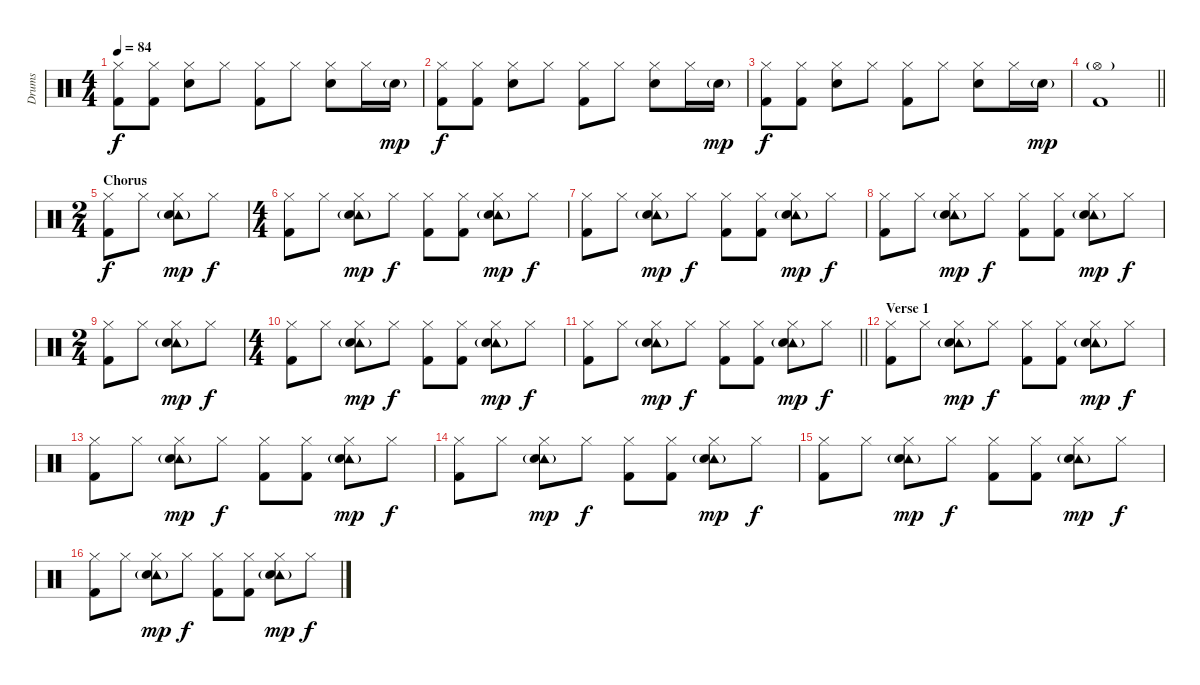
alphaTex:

\track ("Drums" "Drums") {instrument percussion}
\staff {score}
\articulation defaults
\ts (4 4)
\tempo 84
\clef neutral
\ks c
("Hi-Hat (closed)" "Kick (hit) 2").8{dy f} ("Hi-Hat (closed)" "Kick (hit) 2").8 ("Hi-Hat (closed)" "Snare (hit) 2").8 "Hi-Hat (closed)".8 ("Hi-Hat (closed)" "Kick (hit) 2").8 "Hi-Hat (closed)".8 ("Hi-Hat (closed)" "Snare (hit) 2").8 "Hi-Hat (closed)".16 "Snare (hit) 2"{g}.16{dy mp} |
("Hi-Hat (closed)" "Kick (hit) 2").8{dy f} ("Hi-Hat (closed)" "Kick (hit) 2").8 ("Hi-Hat (closed)" "Snare (hit) 2").8 "Hi-Hat (closed)".8 ("Hi-Hat (closed)" "Kick (hit) 2").8 "Hi-Hat (closed)".8 ("Hi-Hat (closed)" "Snare (hit) 2").8 "Hi-Hat (closed)".16 "Snare (hit) 2"{g}.16{dy mp} |
("Hi-Hat (closed)" "Kick (hit) 2").8{dy f} ("Hi-Hat (closed)" "Kick (hit) 2").8 ("Hi-Hat (closed)" "Snare (hit) 2").8 "Hi-Hat (closed)".8 ("Hi-Hat (closed)" "Kick (hit) 2").8 "Hi-Hat (closed)".8 ("Hi-Hat (closed)" "Snare (hit) 2").8 "Hi-Hat (closed)".16 "Snare (hit) 2"{g}.16{dy mp} |
\barLineRight lightlight
("Hi-Hat (open)"{g} "Kick (hit) 2").1 |
\ts (2 4)
\section ("" "Chorus")
("Hi-Hat (closed)" "Kick (hit) 2").8{dy f} "Hi-Hat (closed)".8 ("Hi-Hat (closed)" "Tambourine (hit)"{g} "Snare (hit) 2").8{dy mp} "Hi-Hat (closed)".8{dy f} |
\ts (4 4)
("Hi-Hat (closed)" "Kick (hit) 2").8 "Hi-Hat (closed)".8 ("Hi-Hat (closed)" "Tambourine (hit)"{g} "Snare (hit) 2").8{dy mp} "Hi-Hat (closed)".8{dy f} ("Hi-Hat (closed)" "Kick (hit) 2").8 ("Hi-Hat (closed)" "Kick (hit) 2").8 ("Hi-Hat (closed)" "Tambourine (hit)"{g} "Snare (hit) 2").8{dy mp} "Hi-Hat (closed)".8{dy f} |
("Hi-Hat (closed)" "Kick (hit) 2").8 "Hi-Hat (closed)".8 ("Hi-Hat (closed)" "Tambourine (hit)"{g} "Snare (hit) 2").8{dy mp} "Hi-Hat (closed)".8{dy f} ("Hi-Hat (closed)" "Kick (hit) 2").8 ("Hi-Hat (closed)" "Kick (hit) 2").8 ("Hi-Hat (closed)" "Tambourine (hit)"{g} "Snare (hit) 2").8{dy mp} "Hi-Hat (closed)".8{dy f} |
("Hi-Hat (closed)" "Kick (hit) 2").8 "Hi-Hat (closed)".8 ("Hi-Hat (closed)" "Tambourine (hit)"{g} "Snare (hit) 2").8{dy mp} "Hi-Hat (closed)".8{dy f} ("Hi-Hat (closed)" "Kick (hit) 2").8 ("Hi-Hat (closed)" "Kick (hit) 2").8 ("Hi-Hat (closed)" "Tambourine (hit)"{g} "Snare (hit) 2").8{dy mp} "Hi-Hat (closed)".8{dy f} |
\ts (2 4)
("Hi-Hat (closed)" "Kick (hit) 2").8 "Hi-Hat (closed)".8 ("Hi-Hat (closed)" "Tambourine (hit)"{g} "Snare (hit) 2").8{dy mp} "Hi-Hat (closed)".8{dy f} |
\ts (4 4)
("Hi-Hat (closed)" "Kick (hit) 2").8 "Hi-Hat (closed)".8 ("Hi-Hat (closed)" "Tambourine (hit)"{g} "Snare (hit) 2").8{dy mp} "Hi-Hat (closed)".8{dy f} ("Hi-Hat (closed)" "Kick (hit) 2").8 ("Hi-Hat (closed)" "Kick (hit) 2").8 ("Hi-Hat (closed)" "Tambourine (hit)"{g} "Snare (hit) 2").8{dy mp} "Hi-Hat (closed)".8{dy f} |
\barLineRight lightlight
("Hi-Hat (closed)" "Kick (hit) 2").8 "Hi-Hat (closed)".8 ("Hi-Hat (closed)" "Tambourine (hit)"{g} "Snare (hit) 2").8{dy mp} "Hi-Hat (closed)".8{dy f} ("Hi-Hat (closed)" "Kick (hit) 2").8 ("Hi-Hat (closed)" "Kick (hit) 2").8 ("Hi-Hat (closed)" "Tambourine (hit)"{g} "Snare (hit) 2").8{dy mp} "Hi-Hat (closed)".8{dy f} |
\section ("" "Verse 1")
("Hi-Hat (closed)" "Kick (hit) 2").8 "Hi-Hat (closed)".8 ("Hi-Hat (closed)" "Tambourine (hit)"{g} "Snare (hit) 2").8{dy mp} "Hi-Hat (closed)".8{dy f} ("Hi-Hat (closed)" "Kick (hit) 2").8 ("Hi-Hat (closed)" "Kick (hit) 2").8 ("Hi-Hat (closed)" "Tambourine (hit)"{g} "Snare (hit) 2").8{dy mp} "Hi-Hat (closed)".8{dy f} |
("Hi-Hat (closed)" "Kick (hit) 2").8 "Hi-Hat (closed)".8 ("Hi-Hat (closed)" "Tambourine (hit)"{g} "Snare (hit) 2").8{dy mp} "Hi-Hat (closed)".8{dy f} ("Hi-Hat (closed)" "Kick (hit) 2").8 ("Hi-Hat (closed)" "Kick (hit) 2").8 ("Hi-Hat (closed)" "Tambourine (hit)"{g} "Snare (hit) 2").8{dy mp} "Hi-Hat (closed)".8{dy f} |
("Hi-Hat (closed)" "Kick (hit) 2").8 "Hi-Hat (closed)".8 ("Hi-Hat (closed)" "Tambourine (hit)"{g} "Snare (hit) 2").8{dy mp} "Hi-Hat (closed)".8{dy f} ("Hi-Hat (closed)" "Kick (hit) 2").8 ("Hi-Hat (closed)" "Kick (hit) 2").8 ("Hi-Hat (closed)" "Tambourine (hit)"{g} "Snare (hit) 2").8{dy mp} "Hi-Hat (closed)".8{dy f} |
("Hi-Hat (closed)" "Kick (hit) 2").8 "Hi-Hat (closed)".8 ("Hi-Hat (closed)" "Tambourine (hit)"{g} "Snare (hit) 2").8{dy mp} "Hi-Hat (closed)".8{dy f} ("Hi-Hat (closed)" "Kick (hit) 2").8 ("Hi-Hat (closed)" "Kick (hit) 2").8 ("Hi-Hat (closed)" "Tambourine (hit)"{g} "Snare (hit) 2").8{dy mp} "Hi-Hat (closed)".8{dy f} |
("Hi-Hat (closed)" "Kick (hit) 2").8 "Hi-Hat (closed)".8 ("Hi-Hat (closed)" "Tambourine (hit)"{g} "Snare (hit) 2").8{dy mp} "Hi-Hat (closed)".8{dy f} ("Hi-Hat (closed)" "Kick (hit) 2").8 ("Hi-Hat (closed)" "Kick (hit) 2").8 ("Hi-Hat (closed)" "Tambourine (hit)"{g} "Snare (hit) 2").8{dy mp} "Hi-Hat (closed)".8{dy f}
